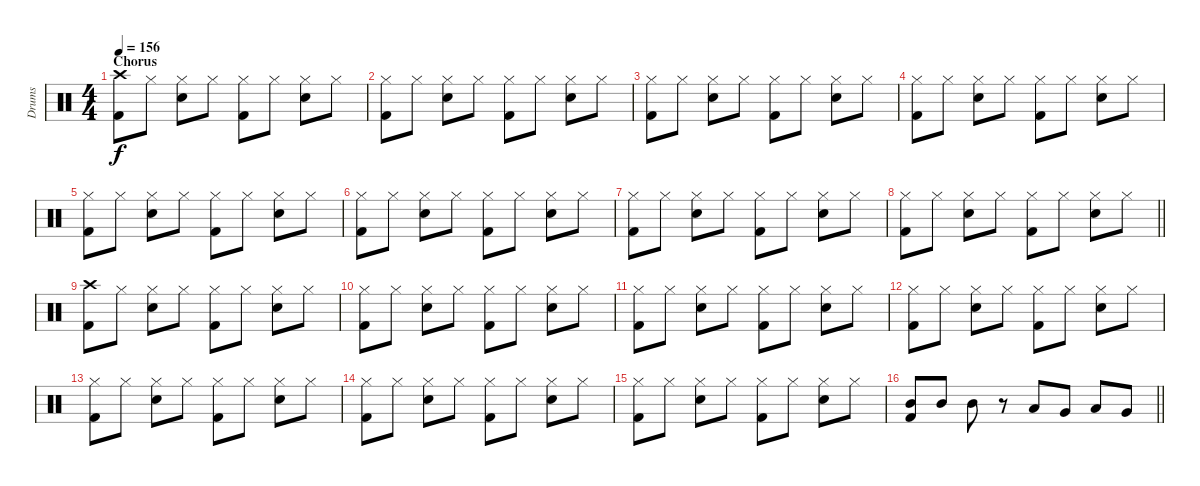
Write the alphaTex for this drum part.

\track ("Drums" "Drums") {instrument percussion}
\staff {score}
\articulation defaults
\ts (4 4)
\section ("" "Chorus")
\tempo 156
\clef neutral
\ks c
("Crash high (hit)" "Kick (hit) 2").8{dy f} "Hi-Hat (closed)".8 ("Hi-Hat (closed)" "Electric Snare (hit)").8 "Hi-Hat (closed)".8 ("Hi-Hat (closed)" "Kick (hit) 2").8 "Hi-Hat (closed)".8 ("Hi-Hat (closed)" "Electric Snare (hit)").8 "Hi-Hat (closed)".8 |
("Hi-Hat (closed)" "Kick (hit) 2").8 "Hi-Hat (closed)".8 ("Hi-Hat (closed)" "Electric Snare (hit)").8 "Hi-Hat (closed)".8 ("Hi-Hat (closed)" "Kick (hit) 2").8 "Hi-Hat (closed)".8 ("Hi-Hat (closed)" "Electric Snare (hit)").8 "Hi-Hat (closed)".8 |
("Hi-Hat (closed)" "Kick (hit) 2").8 "Hi-Hat (closed)".8 ("Hi-Hat (closed)" "Electric Snare (hit)").8 "Hi-Hat (closed)".8 ("Hi-Hat (closed)" "Kick (hit) 2").8 "Hi-Hat (closed)".8 ("Hi-Hat (closed)" "Electric Snare (hit)").8 "Hi-Hat (closed)".8 |
("Hi-Hat (closed)" "Kick (hit) 2").8 "Hi-Hat (closed)".8 ("Hi-Hat (closed)" "Electric Snare (hit)").8 "Hi-Hat (closed)".8 ("Hi-Hat (closed)" "Kick (hit) 2").8 "Hi-Hat (closed)".8 ("Hi-Hat (closed)" "Electric Snare (hit)").8 "Hi-Hat (closed)".8 |
("Hi-Hat (closed)" "Kick (hit) 2").8 "Hi-Hat (closed)".8 ("Hi-Hat (closed)" "Electric Snare (hit)").8 "Hi-Hat (closed)".8 ("Hi-Hat (closed)" "Kick (hit) 2").8 "Hi-Hat (closed)".8 ("Hi-Hat (closed)" "Electric Snare (hit)").8 "Hi-Hat (closed)".8 |
("Hi-Hat (closed)" "Kick (hit) 2").8 "Hi-Hat (closed)".8 ("Hi-Hat (closed)" "Electric Snare (hit)").8 "Hi-Hat (closed)".8 ("Hi-Hat (closed)" "Kick (hit) 2").8 "Hi-Hat (closed)".8 ("Hi-Hat (closed)" "Electric Snare (hit)").8 "Hi-Hat (closed)".8 |
("Hi-Hat (closed)" "Kick (hit) 2").8 "Hi-Hat (closed)".8 ("Hi-Hat (closed)" "Electric Snare (hit)").8 "Hi-Hat (closed)".8 ("Hi-Hat (closed)" "Kick (hit) 2").8 "Hi-Hat (closed)".8 ("Hi-Hat (closed)" "Electric Snare (hit)").8 "Hi-Hat (closed)".8 |
\barLineRight lightlight
("Hi-Hat (closed)" "Kick (hit) 2").8 "Hi-Hat (closed)".8 ("Hi-Hat (closed)" "Electric Snare (hit)").8 "Hi-Hat (closed)".8 ("Hi-Hat (closed)" "Kick (hit) 2").8 "Hi-Hat (closed)".8 ("Hi-Hat (closed)" "Electric Snare (hit)").8 "Hi-Hat (closed)".8 |
("Crash high (hit)" "Kick (hit) 2").8 "Hi-Hat (closed)".8 ("Hi-Hat (closed)" "Electric Snare (hit)").8 "Hi-Hat (closed)".8 ("Hi-Hat (closed)" "Kick (hit) 2").8 "Hi-Hat (closed)".8 ("Hi-Hat (closed)" "Electric Snare (hit)").8 "Hi-Hat (closed)".8 |
("Hi-Hat (closed)" "Kick (hit) 2").8 "Hi-Hat (closed)".8 ("Hi-Hat (closed)" "Electric Snare (hit)").8 "Hi-Hat (closed)".8 ("Hi-Hat (closed)" "Kick (hit) 2").8 "Hi-Hat (closed)".8 ("Hi-Hat (closed)" "Electric Snare (hit)").8 "Hi-Hat (closed)".8 |
("Hi-Hat (closed)" "Kick (hit) 2").8 "Hi-Hat (closed)".8 ("Hi-Hat (closed)" "Electric Snare (hit)").8 "Hi-Hat (closed)".8 ("Hi-Hat (closed)" "Kick (hit) 2").8 "Hi-Hat (closed)".8 ("Hi-Hat (closed)" "Electric Snare (hit)").8 "Hi-Hat (closed)".8 |
("Hi-Hat (closed)" "Kick (hit) 2").8 "Hi-Hat (closed)".8 ("Hi-Hat (closed)" "Electric Snare (hit)").8 "Hi-Hat (closed)".8 ("Hi-Hat (closed)" "Kick (hit) 2").8 "Hi-Hat (closed)".8 ("Hi-Hat (closed)" "Electric Snare (hit)").8 "Hi-Hat (closed)".8 |
("Hi-Hat (closed)" "Kick (hit) 2").8 "Hi-Hat (closed)".8 ("Hi-Hat (closed)" "Electric Snare (hit)").8 "Hi-Hat (closed)".8 ("Hi-Hat (closed)" "Kick (hit) 2").8 "Hi-Hat (closed)".8 ("Hi-Hat (closed)" "Electric Snare (hit)").8 "Hi-Hat (closed)".8 |
("Hi-Hat (closed)" "Kick (hit) 2").8 "Hi-Hat (closed)".8 ("Hi-Hat (closed)" "Electric Snare (hit)").8 "Hi-Hat (closed)".8 ("Hi-Hat (closed)" "Kick (hit) 2").8 "Hi-Hat (closed)".8 ("Hi-Hat (closed)" "Electric Snare (hit)").8 "Hi-Hat (closed)".8 |
("Hi-Hat (closed)" "Kick (hit) 2").8 "Hi-Hat (closed)".8 ("Hi-Hat (closed)" "Electric Snare (hit)").8 "Hi-Hat (closed)".8 ("Hi-Hat (closed)" "Kick (hit) 2").8 "Hi-Hat (closed)".8 ("Hi-Hat (closed)" "Electric Snare (hit)").8 "Hi-Hat (closed)".8 |
\barLineRight lightlight
("Mid Tom (hit)" "Kick (hit) 2").8 "Mid Tom (hit)".8 "Mid Tom (hit)".8 r.8 "Low Tom (hit)".8 "Very Low Tom (hit)".8 "Low Tom (hit)".8 "Very Low Tom (hit)".8
